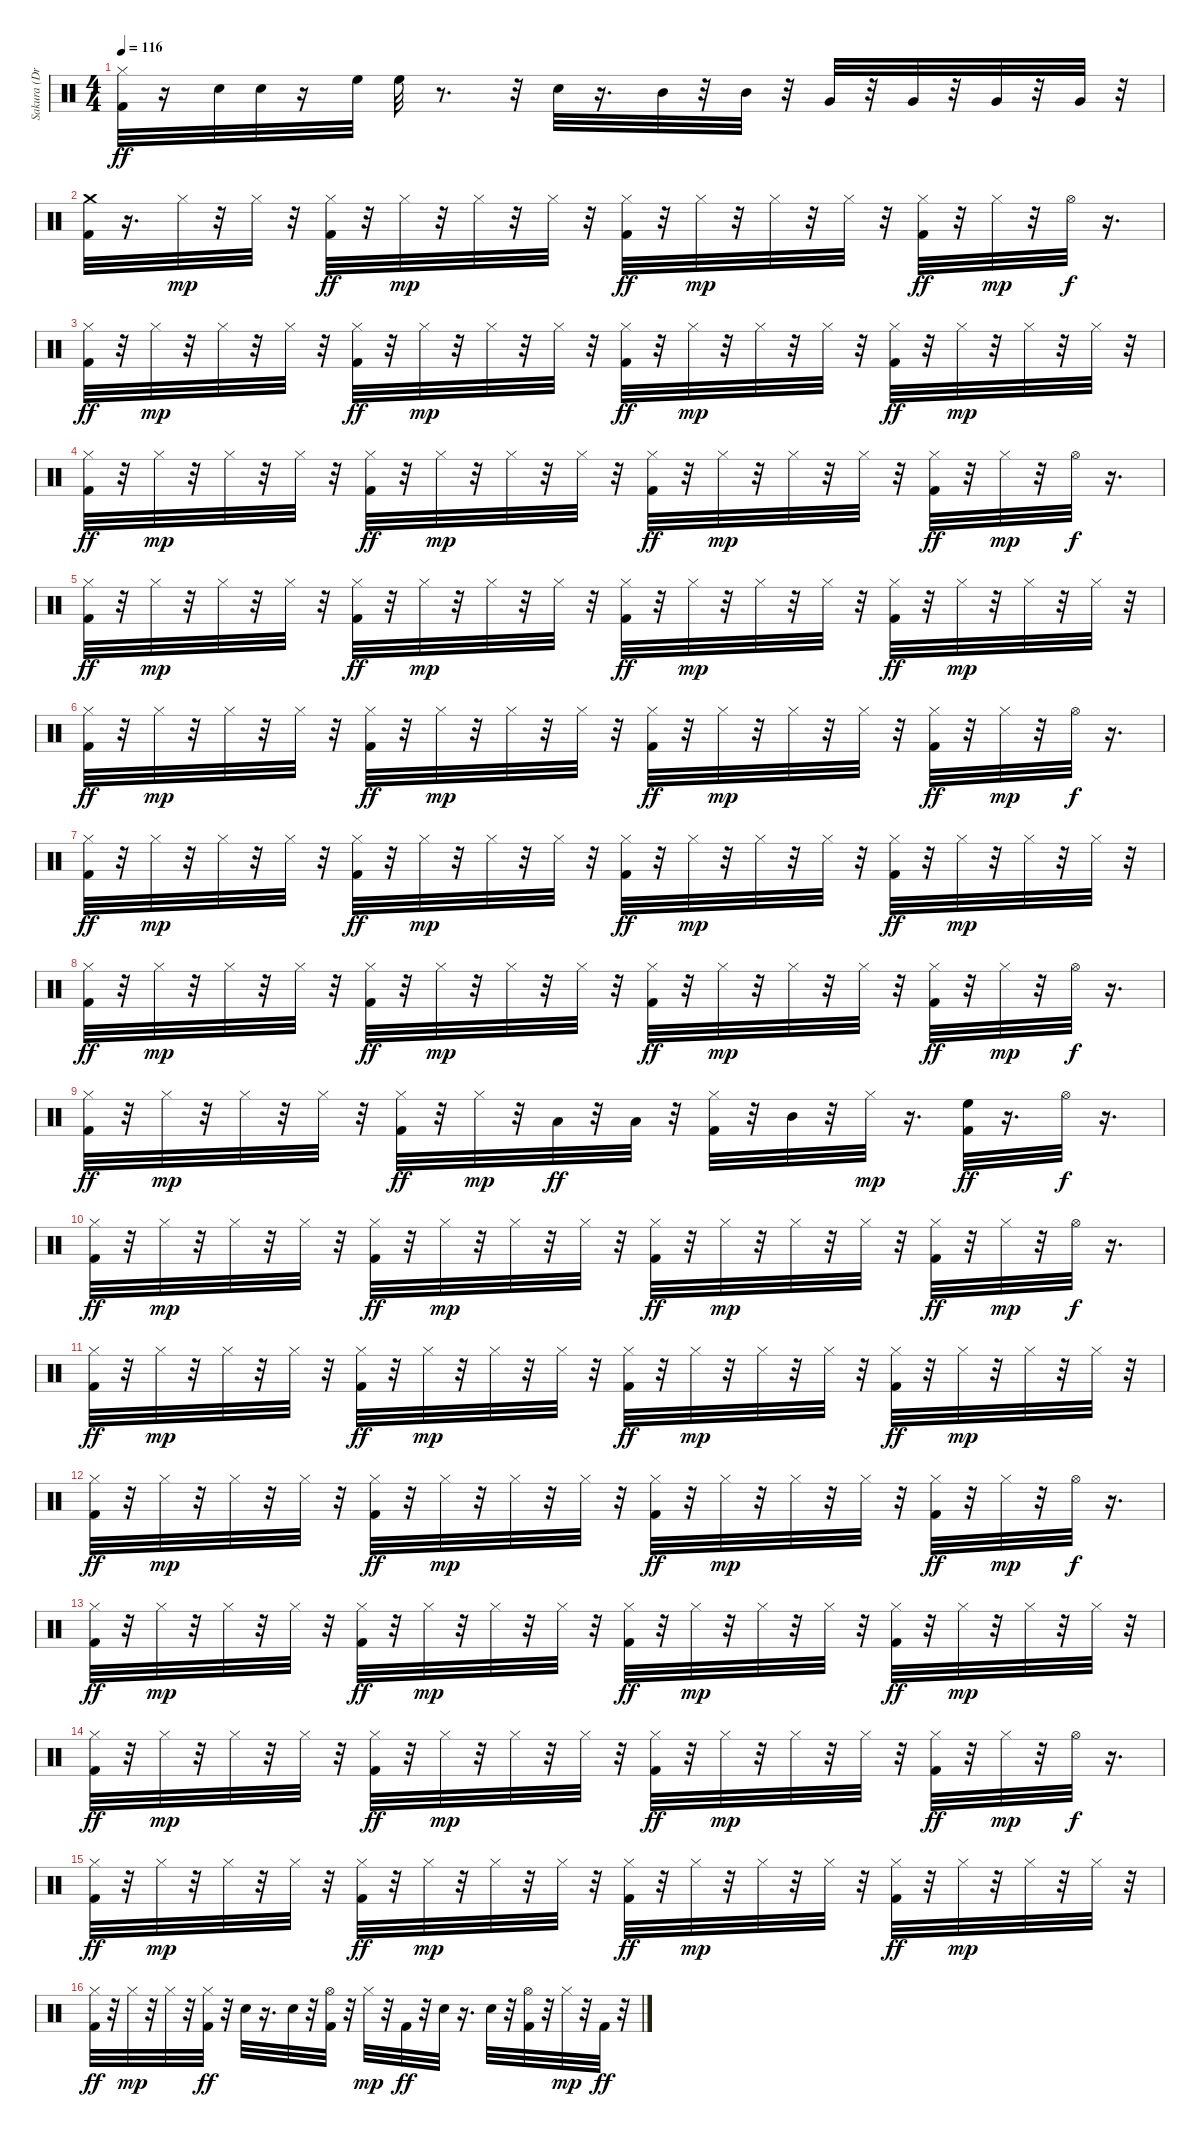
\track ("Sakura (Drums)" "Sakura (Dr") {instrument percussion}
\staff {score}
\articulation defaults
\ts (4 4)
\tempo 116
\clef neutral
\ks c
("Hi-Hat (closed)" "Kick (hit) 2").32{dy ff} r.16 "Electric Snare (hit)".32 "Electric Snare (hit)".32 r.16 "High Floor Tom (hit)".32 "High Floor Tom (hit)".32 r.8{d} r.32 "Electric Snare (hit)".32 r.16{d} "Mid Tom (hit)".32 r.32 "Mid Tom (hit)".32 r.32 "Very Low Tom (hit)".32 r.32 "Very Low Tom (hit)".32 r.32 "Very Low Tom (hit)".32 r.32 "Very Low Tom (hit)".32 r.32 |
("Crash medium (hit)" "Kick (hit) 2").32 r.16{d} "Hi-Hat (closed)".32{dy mp} r.32 "Hi-Hat (closed)".32 r.32 ("Hi-Hat (closed)" "Kick (hit) 2").32{dy ff} r.32 "Hi-Hat (closed)".32{dy mp} r.32 "Hi-Hat (closed)".32 r.32 "Hi-Hat (closed)".32 r.32 ("Hi-Hat (closed)" "Kick (hit) 2").32{dy ff} r.32 "Hi-Hat (closed)".32{dy mp} r.32 "Hi-Hat (closed)".32 r.32 "Hi-Hat (closed)".32 r.32 ("Hi-Hat (closed)" "Kick (hit) 2").32{dy ff} r.32 "Hi-Hat (closed)".32{dy mp} r.32 "Hi-Hat (open)".32{dy f} r.16{d} |
("Hi-Hat (closed)" "Kick (hit) 2").32{dy ff} r.32 "Hi-Hat (closed)".32{dy mp} r.32 "Hi-Hat (closed)".32 r.32 "Hi-Hat (closed)".32 r.32 ("Hi-Hat (closed)" "Kick (hit) 2").32{dy ff} r.32 "Hi-Hat (closed)".32{dy mp} r.32 "Hi-Hat (closed)".32 r.32 "Hi-Hat (closed)".32 r.32 ("Hi-Hat (closed)" "Kick (hit) 2").32{dy ff} r.32 "Hi-Hat (closed)".32{dy mp} r.32 "Hi-Hat (closed)".32 r.32 "Hi-Hat (closed)".32 r.32 ("Hi-Hat (closed)" "Kick (hit) 2").32{dy ff} r.32 "Hi-Hat (closed)".32{dy mp} r.32 "Hi-Hat (closed)".32 r.32 "Hi-Hat (closed)".32 r.32 |
("Hi-Hat (closed)" "Kick (hit) 2").32{dy ff} r.32 "Hi-Hat (closed)".32{dy mp} r.32 "Hi-Hat (closed)".32 r.32 "Hi-Hat (closed)".32 r.32 ("Hi-Hat (closed)" "Kick (hit) 2").32{dy ff} r.32 "Hi-Hat (closed)".32{dy mp} r.32 "Hi-Hat (closed)".32 r.32 "Hi-Hat (closed)".32 r.32 ("Hi-Hat (closed)" "Kick (hit) 2").32{dy ff} r.32 "Hi-Hat (closed)".32{dy mp} r.32 "Hi-Hat (closed)".32 r.32 "Hi-Hat (closed)".32 r.32 ("Hi-Hat (closed)" "Kick (hit) 2").32{dy ff} r.32 "Hi-Hat (closed)".32{dy mp} r.32 "Hi-Hat (open)".32{dy f} r.16{d} |
("Hi-Hat (closed)" "Kick (hit) 2").32{dy ff} r.32 "Hi-Hat (closed)".32{dy mp} r.32 "Hi-Hat (closed)".32 r.32 "Hi-Hat (closed)".32 r.32 ("Hi-Hat (closed)" "Kick (hit) 2").32{dy ff} r.32 "Hi-Hat (closed)".32{dy mp} r.32 "Hi-Hat (closed)".32 r.32 "Hi-Hat (closed)".32 r.32 ("Hi-Hat (closed)" "Kick (hit) 2").32{dy ff} r.32 "Hi-Hat (closed)".32{dy mp} r.32 "Hi-Hat (closed)".32 r.32 "Hi-Hat (closed)".32 r.32 ("Hi-Hat (closed)" "Kick (hit) 2").32{dy ff} r.32 "Hi-Hat (closed)".32{dy mp} r.32 "Hi-Hat (closed)".32 r.32 "Hi-Hat (closed)".32 r.32 |
("Hi-Hat (closed)" "Kick (hit) 2").32{dy ff} r.32 "Hi-Hat (closed)".32{dy mp} r.32 "Hi-Hat (closed)".32 r.32 "Hi-Hat (closed)".32 r.32 ("Hi-Hat (closed)" "Kick (hit) 2").32{dy ff} r.32 "Hi-Hat (closed)".32{dy mp} r.32 "Hi-Hat (closed)".32 r.32 "Hi-Hat (closed)".32 r.32 ("Hi-Hat (closed)" "Kick (hit) 2").32{dy ff} r.32 "Hi-Hat (closed)".32{dy mp} r.32 "Hi-Hat (closed)".32 r.32 "Hi-Hat (closed)".32 r.32 ("Hi-Hat (closed)" "Kick (hit) 2").32{dy ff} r.32 "Hi-Hat (closed)".32{dy mp} r.32 "Hi-Hat (open)".32{dy f} r.16{d} |
("Hi-Hat (closed)" "Kick (hit) 2").32{dy ff} r.32 "Hi-Hat (closed)".32{dy mp} r.32 "Hi-Hat (closed)".32 r.32 "Hi-Hat (closed)".32 r.32 ("Hi-Hat (closed)" "Kick (hit) 2").32{dy ff} r.32 "Hi-Hat (closed)".32{dy mp} r.32 "Hi-Hat (closed)".32 r.32 "Hi-Hat (closed)".32 r.32 ("Hi-Hat (closed)" "Kick (hit) 2").32{dy ff} r.32 "Hi-Hat (closed)".32{dy mp} r.32 "Hi-Hat (closed)".32 r.32 "Hi-Hat (closed)".32 r.32 ("Hi-Hat (closed)" "Kick (hit) 2").32{dy ff} r.32 "Hi-Hat (closed)".32{dy mp} r.32 "Hi-Hat (closed)".32 r.32 "Hi-Hat (closed)".32 r.32 |
("Hi-Hat (closed)" "Kick (hit) 2").32{dy ff} r.32 "Hi-Hat (closed)".32{dy mp} r.32 "Hi-Hat (closed)".32 r.32 "Hi-Hat (closed)".32 r.32 ("Hi-Hat (closed)" "Kick (hit) 2").32{dy ff} r.32 "Hi-Hat (closed)".32{dy mp} r.32 "Hi-Hat (closed)".32 r.32 "Hi-Hat (closed)".32 r.32 ("Hi-Hat (closed)" "Kick (hit) 2").32{dy ff} r.32 "Hi-Hat (closed)".32{dy mp} r.32 "Hi-Hat (closed)".32 r.32 "Hi-Hat (closed)".32 r.32 ("Hi-Hat (closed)" "Kick (hit) 2").32{dy ff} r.32 "Hi-Hat (closed)".32{dy mp} r.32 "Hi-Hat (open)".32{dy f} r.16{d} |
("Hi-Hat (closed)" "Kick (hit) 2").32{dy ff} r.32 "Hi-Hat (closed)".32{dy mp} r.32 "Hi-Hat (closed)".32 r.32 "Hi-Hat (closed)".32 r.32 ("Hi-Hat (closed)" "Kick (hit) 2").32{dy ff} r.32 "Hi-Hat (closed)".32{dy mp} r.32 "Low Tom (hit)".32{dy ff} r.32 "Low Tom (hit)".32 r.32 ("Hi-Hat (closed)" "Kick (hit) 2").32 r.32 "Mid Tom (hit)".32 r.32 "Hi-Hat (closed)".32{dy mp} r.16{d} ("High Floor Tom (hit)" "Kick (hit) 2").32{dy ff} r.16{d} "Hi-Hat (open)".32{dy f} r.16{d} |
("Hi-Hat (closed)" "Kick (hit) 2").32{dy ff} r.32 "Hi-Hat (closed)".32{dy mp} r.32 "Hi-Hat (closed)".32 r.32 "Hi-Hat (closed)".32 r.32 ("Hi-Hat (closed)" "Kick (hit) 2").32{dy ff} r.32 "Hi-Hat (closed)".32{dy mp} r.32 "Hi-Hat (closed)".32 r.32 "Hi-Hat (closed)".32 r.32 ("Hi-Hat (closed)" "Kick (hit) 2").32{dy ff} r.32 "Hi-Hat (closed)".32{dy mp} r.32 "Hi-Hat (closed)".32 r.32 "Hi-Hat (closed)".32 r.32 ("Hi-Hat (closed)" "Kick (hit) 2").32{dy ff} r.32 "Hi-Hat (closed)".32{dy mp} r.32 "Hi-Hat (open)".32{dy f} r.16{d} |
("Hi-Hat (closed)" "Kick (hit) 2").32{dy ff} r.32 "Hi-Hat (closed)".32{dy mp} r.32 "Hi-Hat (closed)".32 r.32 "Hi-Hat (closed)".32 r.32 ("Hi-Hat (closed)" "Kick (hit) 2").32{dy ff} r.32 "Hi-Hat (closed)".32{dy mp} r.32 "Hi-Hat (closed)".32 r.32 "Hi-Hat (closed)".32 r.32 ("Hi-Hat (closed)" "Kick (hit) 2").32{dy ff} r.32 "Hi-Hat (closed)".32{dy mp} r.32 "Hi-Hat (closed)".32 r.32 "Hi-Hat (closed)".32 r.32 ("Hi-Hat (closed)" "Kick (hit) 2").32{dy ff} r.32 "Hi-Hat (closed)".32{dy mp} r.32 "Hi-Hat (closed)".32 r.32 "Hi-Hat (closed)".32 r.32 |
("Hi-Hat (closed)" "Kick (hit) 2").32{dy ff} r.32 "Hi-Hat (closed)".32{dy mp} r.32 "Hi-Hat (closed)".32 r.32 "Hi-Hat (closed)".32 r.32 ("Hi-Hat (closed)" "Kick (hit) 2").32{dy ff} r.32 "Hi-Hat (closed)".32{dy mp} r.32 "Hi-Hat (closed)".32 r.32 "Hi-Hat (closed)".32 r.32 ("Hi-Hat (closed)" "Kick (hit) 2").32{dy ff} r.32 "Hi-Hat (closed)".32{dy mp} r.32 "Hi-Hat (closed)".32 r.32 "Hi-Hat (closed)".32 r.32 ("Hi-Hat (closed)" "Kick (hit) 2").32{dy ff} r.32 "Hi-Hat (closed)".32{dy mp} r.32 "Hi-Hat (open)".32{dy f} r.16{d} |
("Hi-Hat (closed)" "Kick (hit) 2").32{dy ff} r.32 "Hi-Hat (closed)".32{dy mp} r.32 "Hi-Hat (closed)".32 r.32 "Hi-Hat (closed)".32 r.32 ("Hi-Hat (closed)" "Kick (hit) 2").32{dy ff} r.32 "Hi-Hat (closed)".32{dy mp} r.32 "Hi-Hat (closed)".32 r.32 "Hi-Hat (closed)".32 r.32 ("Hi-Hat (closed)" "Kick (hit) 2").32{dy ff} r.32 "Hi-Hat (closed)".32{dy mp} r.32 "Hi-Hat (closed)".32 r.32 "Hi-Hat (closed)".32 r.32 ("Hi-Hat (closed)" "Kick (hit) 2").32{dy ff} r.32 "Hi-Hat (closed)".32{dy mp} r.32 "Hi-Hat (closed)".32 r.32 "Hi-Hat (closed)".32 r.32 |
("Hi-Hat (closed)" "Kick (hit) 2").32{dy ff} r.32 "Hi-Hat (closed)".32{dy mp} r.32 "Hi-Hat (closed)".32 r.32 "Hi-Hat (closed)".32 r.32 ("Hi-Hat (closed)" "Kick (hit) 2").32{dy ff} r.32 "Hi-Hat (closed)".32{dy mp} r.32 "Hi-Hat (closed)".32 r.32 "Hi-Hat (closed)".32 r.32 ("Hi-Hat (closed)" "Kick (hit) 2").32{dy ff} r.32 "Hi-Hat (closed)".32{dy mp} r.32 "Hi-Hat (closed)".32 r.32 "Hi-Hat (closed)".32 r.32 ("Hi-Hat (closed)" "Kick (hit) 2").32{dy ff} r.32 "Hi-Hat (closed)".32{dy mp} r.32 "Hi-Hat (open)".32{dy f} r.16{d} |
("Hi-Hat (closed)" "Kick (hit) 2").32{dy ff} r.32 "Hi-Hat (closed)".32{dy mp} r.32 "Hi-Hat (closed)".32 r.32 "Hi-Hat (closed)".32 r.32 ("Hi-Hat (closed)" "Kick (hit) 2").32{dy ff} r.32 "Hi-Hat (closed)".32{dy mp} r.32 "Hi-Hat (closed)".32 r.32 "Hi-Hat (closed)".32 r.32 ("Hi-Hat (closed)" "Kick (hit) 2").32{dy ff} r.32 "Hi-Hat (closed)".32{dy mp} r.32 "Hi-Hat (closed)".32 r.32 "Hi-Hat (closed)".32 r.32 ("Hi-Hat (closed)" "Kick (hit) 2").32{dy ff} r.32 "Hi-Hat (closed)".32{dy mp} r.32 "Hi-Hat (closed)".32 r.32 "Hi-Hat (closed)".32 r.32 |
("Hi-Hat (closed)" "Kick (hit) 2").32{dy ff} r.32 "Hi-Hat (closed)".32{dy mp} r.32 "Hi-Hat (closed)".32 r.32 ("Hi-Hat (closed)" "Kick (hit) 2").32{dy ff} r.32 "Electric Snare (hit)".32 r.16{d} "Electric Snare (hit)".32 r.32 ("Hi-Hat (open)" "Kick (hit) 2").32 r.32 "Hi-Hat (closed)".32{dy mp} r.32 "Kick (hit) 2".32{dy ff} r.32 "Electric Snare (hit)".32 r.16{d} "Electric Snare (hit)".32 r.32 ("Hi-Hat (open)" "Kick (hit) 2").32 r.32 "Hi-Hat (closed)".32{dy mp} r.32 "Kick (hit) 2".32{dy ff} r.32
